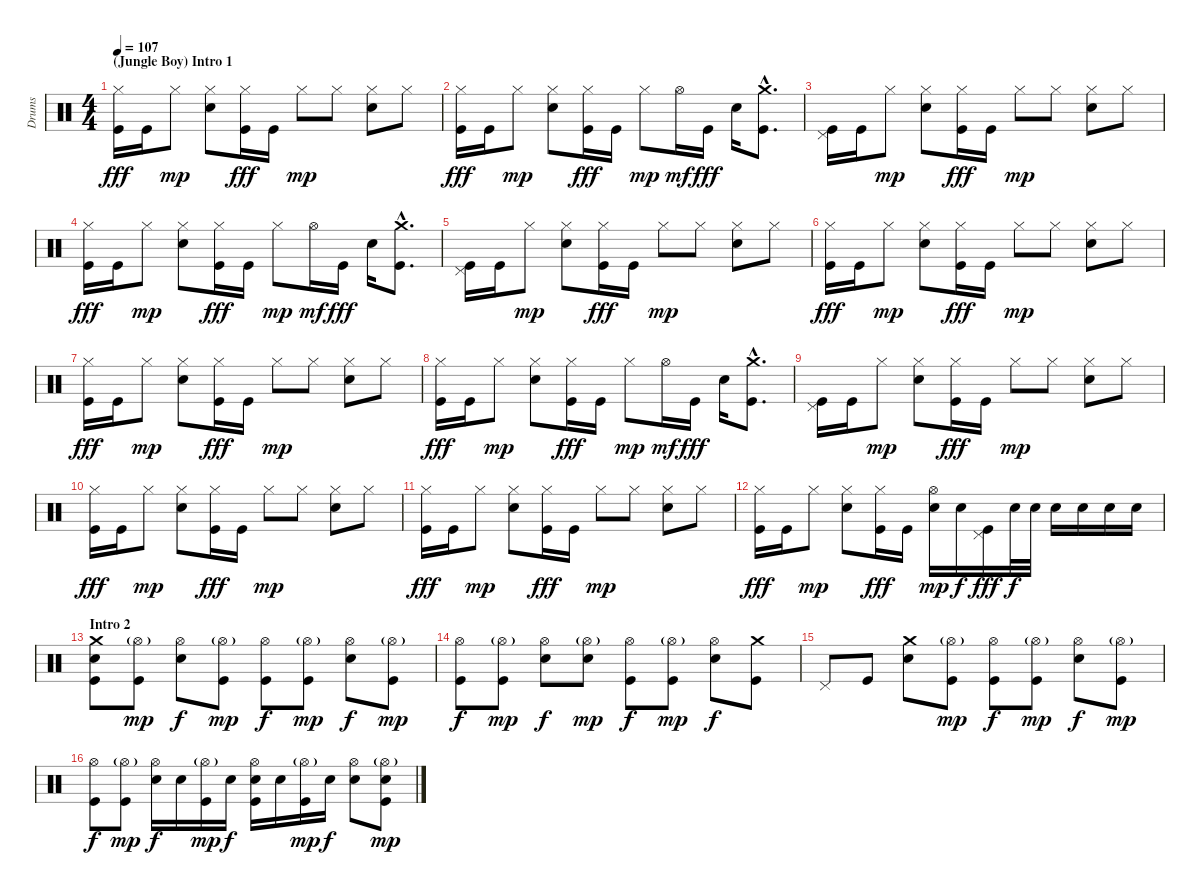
\track ("Drums" "Drums") {instrument percussion}
\staff {score}
\articulation defaults
\ts (4 4)
\section ("" "(Jungle Boy) Intro 1")
\tempo 107
\clef neutral
\ks c
("Hi-Hat (closed)" "Kick (hit)").16{dy fff} "Kick (hit)".16 "Hi-Hat (closed)".8{dy mp} ("Hi-Hat (closed)" "Electric Snare (hit)").8 ("Hi-Hat (closed)" "Kick (hit)").16{dy fff} "Kick (hit)".16 "Hi-Hat (closed)".8{dy mp} "Hi-Hat (closed)".8 ("Hi-Hat (closed)" "Electric Snare (hit)").8 "Hi-Hat (closed)".8 |
("Hi-Hat (closed)" "Kick (hit)").16{dy fff} "Kick (hit)".16 "Hi-Hat (closed)".8{dy mp} ("Hi-Hat (closed)" "Electric Snare (hit)").8 ("Hi-Hat (closed)" "Kick (hit)").16{dy fff} "Kick (hit)".16 "Hi-Hat (closed)".8{dy mp} "Hi-Hat (open)".16{dy mf} "Kick (hit)".16{dy fff} "Electric Snare (hit)".16 ("Crash medium (hit)"{hac} "Kick (hit)"{hac}).8{d} |
("Pedal Hi-Hat (hit)" "Kick (hit)").16 "Kick (hit)".16 "Hi-Hat (closed)".8{dy mp} ("Hi-Hat (closed)" "Electric Snare (hit)").8 ("Hi-Hat (closed)" "Kick (hit)").16{dy fff} "Kick (hit)".16 "Hi-Hat (closed)".8{dy mp} "Hi-Hat (closed)".8 ("Hi-Hat (closed)" "Electric Snare (hit)").8 "Hi-Hat (closed)".8 |
("Hi-Hat (closed)" "Kick (hit)").16{dy fff} "Kick (hit)".16 "Hi-Hat (closed)".8{dy mp} ("Hi-Hat (closed)" "Electric Snare (hit)").8 ("Hi-Hat (closed)" "Kick (hit)").16{dy fff} "Kick (hit)".16 "Hi-Hat (closed)".8{dy mp} "Hi-Hat (open)".16{dy mf} "Kick (hit)".16{dy fff} "Electric Snare (hit)".16 ("Crash medium (hit)"{hac} "Kick (hit)"{hac}).8{d} |
("Pedal Hi-Hat (hit)" "Kick (hit)").16 "Kick (hit)".16 "Hi-Hat (closed)".8{dy mp} ("Hi-Hat (closed)" "Electric Snare (hit)").8 ("Hi-Hat (closed)" "Kick (hit)").16{dy fff} "Kick (hit)".16 "Hi-Hat (closed)".8{dy mp} "Hi-Hat (closed)".8 ("Hi-Hat (closed)" "Electric Snare (hit)").8 "Hi-Hat (closed)".8 |
("Hi-Hat (closed)" "Kick (hit)").16{dy fff} "Kick (hit)".16 "Hi-Hat (closed)".8{dy mp} ("Hi-Hat (closed)" "Electric Snare (hit)").8 ("Hi-Hat (closed)" "Kick (hit)").16{dy fff} "Kick (hit)".16 "Hi-Hat (closed)".8{dy mp} "Hi-Hat (closed)".8 ("Hi-Hat (closed)" "Electric Snare (hit)").8 "Hi-Hat (closed)".8 |
("Hi-Hat (closed)" "Kick (hit)").16{dy fff} "Kick (hit)".16 "Hi-Hat (closed)".8{dy mp} ("Hi-Hat (closed)" "Electric Snare (hit)").8 ("Hi-Hat (closed)" "Kick (hit)").16{dy fff} "Kick (hit)".16 "Hi-Hat (closed)".8{dy mp} "Hi-Hat (closed)".8 ("Hi-Hat (closed)" "Electric Snare (hit)").8 "Hi-Hat (closed)".8 |
("Hi-Hat (closed)" "Kick (hit)").16{dy fff} "Kick (hit)".16 "Hi-Hat (closed)".8{dy mp} ("Hi-Hat (closed)" "Electric Snare (hit)").8 ("Hi-Hat (closed)" "Kick (hit)").16{dy fff} "Kick (hit)".16 "Hi-Hat (closed)".8{dy mp} "Hi-Hat (open)".16{dy mf} "Kick (hit)".16{dy fff} "Electric Snare (hit)".16 ("Crash medium (hit)"{hac} "Kick (hit)"{hac}).8{d} |
("Pedal Hi-Hat (hit)" "Kick (hit)").16 "Kick (hit)".16 "Hi-Hat (closed)".8{dy mp} ("Hi-Hat (closed)" "Electric Snare (hit)").8 ("Hi-Hat (closed)" "Kick (hit)").16{dy fff} "Kick (hit)".16 "Hi-Hat (closed)".8{dy mp} "Hi-Hat (closed)".8 ("Hi-Hat (closed)" "Electric Snare (hit)").8 "Hi-Hat (closed)".8 |
("Hi-Hat (closed)" "Kick (hit)").16{dy fff} "Kick (hit)".16 "Hi-Hat (closed)".8{dy mp} ("Hi-Hat (closed)" "Electric Snare (hit)").8 ("Hi-Hat (closed)" "Kick (hit)").16{dy fff} "Kick (hit)".16 "Hi-Hat (closed)".8{dy mp} "Hi-Hat (closed)".8 ("Hi-Hat (closed)" "Electric Snare (hit)").8 "Hi-Hat (closed)".8 |
("Hi-Hat (closed)" "Kick (hit)").16{dy fff} "Kick (hit)".16 "Hi-Hat (closed)".8{dy mp} ("Hi-Hat (closed)" "Electric Snare (hit)").8 ("Hi-Hat (closed)" "Kick (hit)").16{dy fff} "Kick (hit)".16 "Hi-Hat (closed)".8{dy mp} "Hi-Hat (closed)".8 ("Hi-Hat (closed)" "Electric Snare (hit)").8 "Hi-Hat (closed)".8 |
("Hi-Hat (closed)" "Kick (hit)").16{dy fff} "Kick (hit)".16 "Hi-Hat (closed)".8{dy mp} ("Hi-Hat (closed)" "Electric Snare (hit)").8 ("Hi-Hat (closed)" "Kick (hit)").16{dy fff} "Kick (hit)".16 ("Hi-Hat (open)" "Electric Snare (hit)").16{dy mp} "Electric Snare (hit)".16{dy f} ("Pedal Hi-Hat (hit)" "Kick (hit)").16{dy fff} "Electric Snare (hit)".32{dy f} "Electric Snare (hit)".32 "Electric Snare (hit)".16 "Electric Snare (hit)".16 "Electric Snare (hit)".16 "Electric Snare (hit)".16 |
\section ("" "Intro 2")
("Crash medium (hit)" "Electric Snare (hit)" "Kick (hit)").8 ("Hi-Hat (open)"{g} "Kick (hit)").8{dy mp} ("Hi-Hat (open)" "Electric Snare (hit)").8{dy f} ("Hi-Hat (open)"{g} "Kick (hit)").8{dy mp} ("Hi-Hat (open)" "Kick (hit)").8{dy f} ("Hi-Hat (open)"{g} "Kick (hit)").8{dy mp} ("Hi-Hat (open)" "Electric Snare (hit)").8{dy f} ("Hi-Hat (open)"{g} "Kick (hit)").8{dy mp} |
("Hi-Hat (open)" "Kick (hit)").8{dy f} ("Hi-Hat (open)"{g} "Kick (hit)").8{dy mp} ("Hi-Hat (open)" "Electric Snare (hit)").8{dy f} ("Hi-Hat (open)"{g} "Electric Snare (hit)").8{dy mp} ("Hi-Hat (open)" "Kick (hit)").8{dy f} ("Hi-Hat (open)"{g} "Kick (hit)").8{dy mp} ("Hi-Hat (open)" "Electric Snare (hit)").8{dy f} ("Crash medium (hit)" "Kick (hit)").8 |
"Pedal Hi-Hat (hit)".8 "Kick (hit)".8 ("Crash medium (hit)" "Electric Snare (hit)").8 ("Hi-Hat (open)"{g} "Kick (hit)").8{dy mp} ("Hi-Hat (open)" "Kick (hit)").8{dy f} ("Hi-Hat (open)"{g} "Kick (hit)").8{dy mp} ("Hi-Hat (open)" "Electric Snare (hit)").8{dy f} ("Hi-Hat (open)"{g} "Kick (hit)").8{dy mp} |
("Hi-Hat (open)" "Kick (hit)").8{dy f} ("Hi-Hat (open)"{g} "Kick (hit)").8{dy mp} ("Hi-Hat (open)" "Electric Snare (hit)").16{dy f} "Electric Snare (hit)".16 ("Hi-Hat (open)"{g} "Kick (hit)").16{dy mp} "Electric Snare (hit)".16{dy f} ("Hi-Hat (open)" "Electric Snare (hit)" "Kick (hit)").16 "Electric Snare (hit)".16 ("Hi-Hat (open)"{g} "Kick (hit)").16{dy mp} "Electric Snare (hit)".16{dy f} ("Hi-Hat (open)" "Electric Snare (hit)").8 ("Hi-Hat (open)"{g} "Electric Snare (hit)" "Kick (hit)").8{dy mp}
